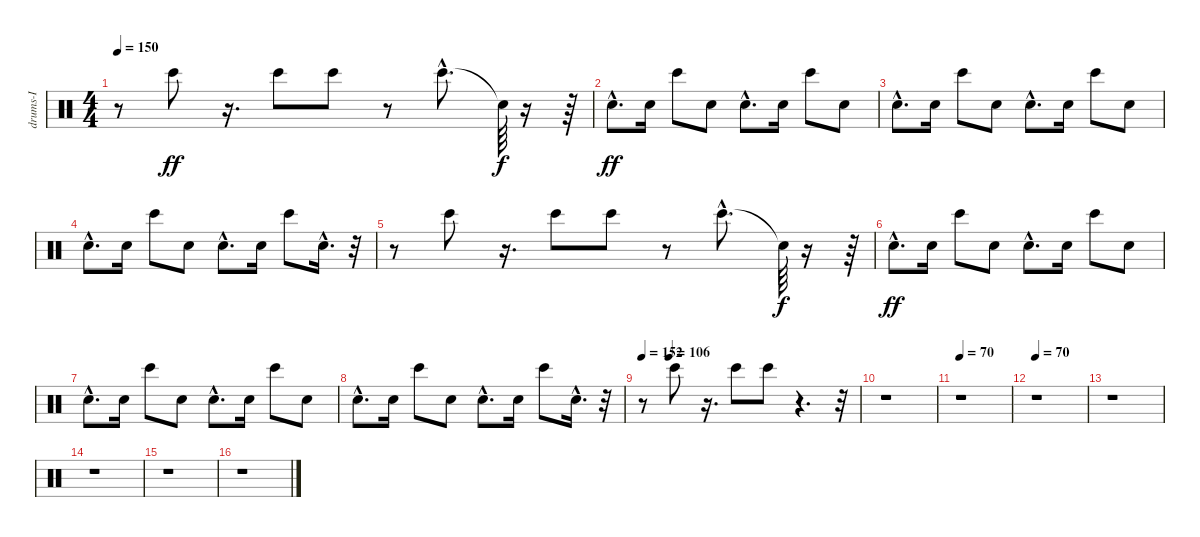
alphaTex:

\track ("drums-I" "drums-I") {instrument percussion}
\staff {score}
\articulation defaults
\ts (4 4)
\tempo 150
\clef neutral
\ks c
r.8{dy ff} "Bongo High (hit)".8 r.16{d} "Bongo High (hit)".8 "Bongo High (hit)".8 r.8 "Bongo High (hit)"{hac}.8{d} "Snare (hit)"{t}.64{dy f} r.16 r.64 |
"Snare (hit)"{hac}.8{d dy ff} "Snare (hit)".16 "Bongo High (hit)".8 "Snare (hit)".8 "Snare (hit)"{hac}.8{d} "Snare (hit)".16 "Bongo High (hit)".8 "Snare (hit)".8 |
"Snare (hit)"{hac}.8{d} "Snare (hit)".16 "Bongo High (hit)".8 "Snare (hit)".8 "Snare (hit)"{hac}.8{d} "Snare (hit)".16 "Bongo High (hit)".8 "Snare (hit)".8 |
"Snare (hit)"{hac}.8{d} "Snare (hit)".16 "Bongo High (hit)".8 "Snare (hit)".8 "Snare (hit)"{hac}.8{d} "Snare (hit)".16 "Bongo High (hit)".8 "Snare (hit)"{hac}.16{d} r.32 |
r.8 "Bongo High (hit)".8 r.16{d} "Bongo High (hit)".8 "Bongo High (hit)".8 r.8 "Bongo High (hit)"{hac}.8{d} "Snare (hit)"{t}.64{dy f} r.16 r.64 |
"Snare (hit)"{hac}.8{d dy ff} "Snare (hit)".16 "Bongo High (hit)".8 "Snare (hit)".8 "Snare (hit)"{hac}.8{d} "Snare (hit)".16 "Bongo High (hit)".8 "Snare (hit)".8 |
"Snare (hit)"{hac}.8{d} "Snare (hit)".16 "Bongo High (hit)".8 "Snare (hit)".8 "Snare (hit)"{hac}.8{d} "Snare (hit)".16 "Bongo High (hit)".8 "Snare (hit)".8 |
"Snare (hit)"{hac}.8{d} "Snare (hit)".16 "Bongo High (hit)".8 "Snare (hit)".8 "Snare (hit)"{hac}.8{d} "Snare (hit)".16 "Bongo High (hit)".8 "Snare (hit)"{hac}.16{d} r.32 |
\tempo 152
\tempo (106 0.125)
r.8 "Bongo High (hit)".8 r.16{d} "Bongo High (hit)".8 "Bongo High (hit)".8 r.4{d} r.32 |
r.1 |
\tempo 70
r.1 |
\tempo 70
r.1 |
r.1 |
r.1 |
r.1 |
r.1
